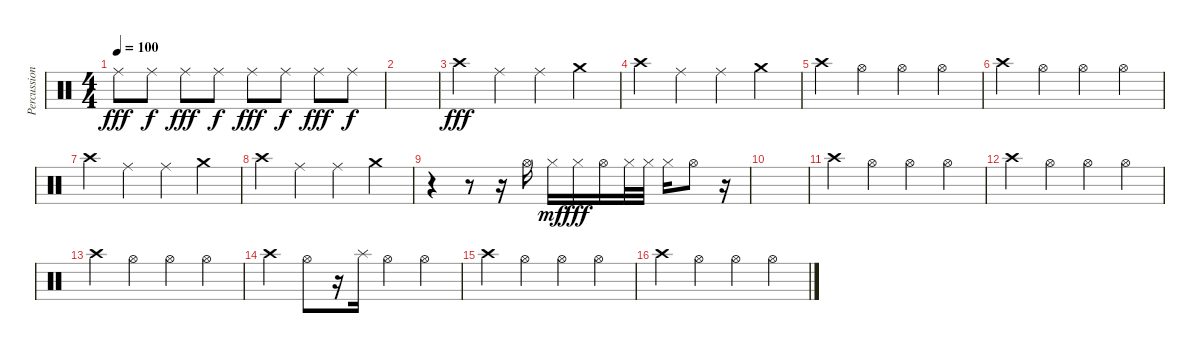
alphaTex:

\track ("Percussion" "Percussion") {instrument percussion}
\staff {score}
\articulation defaults
\ts (4 4)
\tempo 100
\clef neutral
\ks c "Ride (middle)".8{dy fff} "Ride (middle)".8{dy f} "Ride (middle)".8{dy fff} "Ride (middle)".8{dy f} "Ride (middle)".8{dy fff} "Ride (middle)".8{dy f} "Ride (middle)".8{dy fff} "Ride (middle)".8{dy f}
|
|
"Crash high (hit)".4{dy fff} "Ride (middle)".4 "Ride (middle)".4 "Crash medium (hit)".4 |
"Crash high (hit)".4 "Ride (middle)".4 "Ride (middle)".4 "Crash medium (hit)".4 |
"Crash high (hit)".4 "Hi-Hat (open)".4 "Hi-Hat (open)".4 "Hi-Hat (open)".4 |
"Crash high (hit)".4 "Hi-Hat (open)".4 "Hi-Hat (open)".4 "Hi-Hat (open)".4 |
"Crash high (hit)".4 "Ride (middle)".4 "Ride (middle)".4 "Crash medium (hit)".4 |
"Crash high (hit)".4 "Ride (middle)".4 "Ride (middle)".4 "Crash medium (hit)".4 |
r.4 r.8 r.16 "Hi-Hat (open)".16 "Hi-Hat (closed)".16{dy mf} "Hi-Hat (closed)".16{dy fff} "Hi-Hat (open)".16 "Hi-Hat (closed)".32 "Hi-Hat (closed)".32 "Hi-Hat (closed)".16 "Hi-Hat (open)".8 r.16 |
|
"Crash high (hit)".4 "Hi-Hat (open)".4 "Hi-Hat (open)".4 "Hi-Hat (open)".4 |
"Crash high (hit)".4 "Hi-Hat (open)".4 "Hi-Hat (open)".4 "Hi-Hat (open)".4 |
"Crash high (hit)".4 "Hi-Hat (open)".4 "Hi-Hat (open)".4 "Hi-Hat (open)".4 |
"Crash high (hit)".4 "Hi-Hat (open)".8 r.16 "Splash (hit)".16 "Hi-Hat (open)".4 "Hi-Hat (open)".4 |
"Crash high (hit)".4 "Hi-Hat (open)".4 "Hi-Hat (open)".4 "Hi-Hat (open)".4 |
"Crash high (hit)".4 "Hi-Hat (open)".4 "Hi-Hat (open)".4 "Hi-Hat (open)".4
